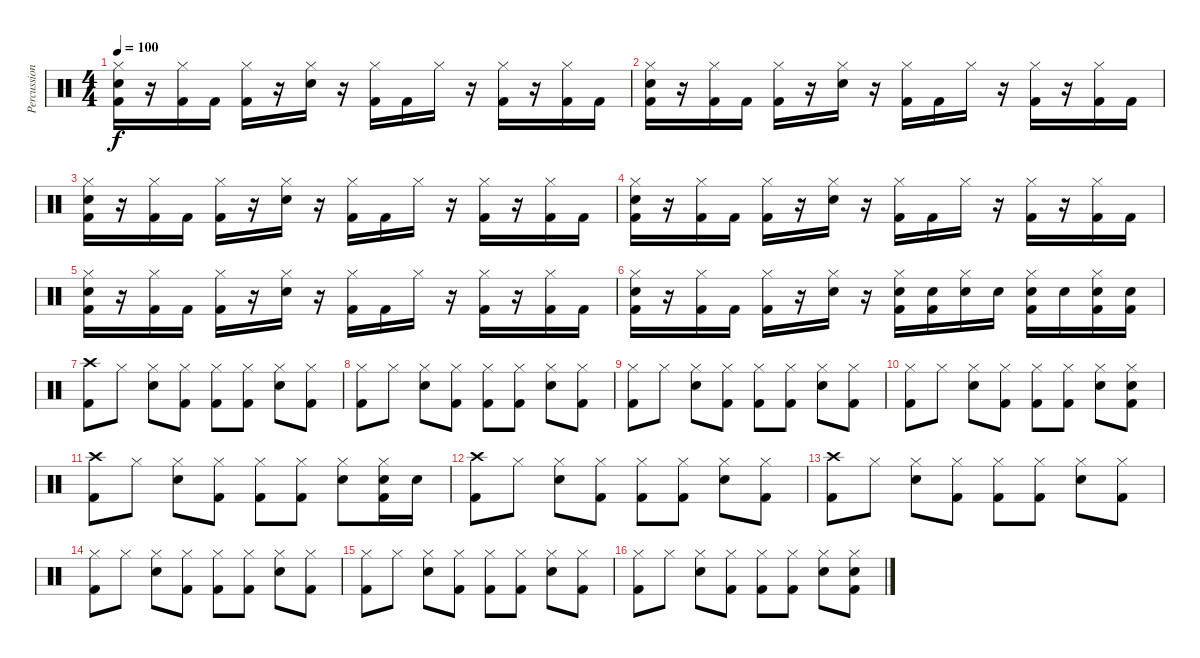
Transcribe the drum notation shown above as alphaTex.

\track ("Percussion" "Percussion") {instrument percussion}
\staff {score}
\articulation defaults
\ts (4 4)
\tempo 100
\clef neutral
\ks c
("Hi-Hat (closed)" "Snare (hit) 2" "Kick (hit) 2").16{dy f} r.16 ("Hi-Hat (closed)" "Kick (hit) 2").16 "Kick (hit) 2".16 ("Hi-Hat (closed)" "Kick (hit) 2").16 r.16 ("Hi-Hat (closed)" "Snare (hit) 2").16 r.16 ("Hi-Hat (closed)" "Kick (hit) 2").16 "Kick (hit) 2".16 "Hi-Hat (closed)".16 r.16 ("Hi-Hat (closed)" "Kick (hit) 2").16 r.16 ("Hi-Hat (closed)" "Kick (hit) 2").16 "Kick (hit) 2".16 |
("Hi-Hat (closed)" "Snare (hit) 2" "Kick (hit) 2").16 r.16 ("Hi-Hat (closed)" "Kick (hit) 2").16 "Kick (hit) 2".16 ("Hi-Hat (closed)" "Kick (hit) 2").16 r.16 ("Hi-Hat (closed)" "Snare (hit) 2").16 r.16 ("Hi-Hat (closed)" "Kick (hit) 2").16 "Kick (hit) 2".16 "Hi-Hat (closed)".16 r.16 ("Hi-Hat (closed)" "Kick (hit) 2").16 r.16 ("Hi-Hat (closed)" "Kick (hit) 2").16 "Kick (hit) 2".16 |
("Hi-Hat (closed)" "Snare (hit) 2" "Kick (hit) 2").16 r.16 ("Hi-Hat (closed)" "Kick (hit) 2").16 "Kick (hit) 2".16 ("Hi-Hat (closed)" "Kick (hit) 2").16 r.16 ("Hi-Hat (closed)" "Snare (hit) 2").16 r.16 ("Hi-Hat (closed)" "Kick (hit) 2").16 "Kick (hit) 2".16 "Hi-Hat (closed)".16 r.16 ("Hi-Hat (closed)" "Kick (hit) 2").16 r.16 ("Hi-Hat (closed)" "Kick (hit) 2").16 "Kick (hit) 2".16 |
("Hi-Hat (closed)" "Snare (hit) 2" "Kick (hit) 2").16 r.16 ("Hi-Hat (closed)" "Kick (hit) 2").16 "Kick (hit) 2".16 ("Hi-Hat (closed)" "Kick (hit) 2").16 r.16 ("Hi-Hat (closed)" "Snare (hit) 2").16 r.16 ("Hi-Hat (closed)" "Kick (hit) 2").16 "Kick (hit) 2".16 "Hi-Hat (closed)".16 r.16 ("Hi-Hat (closed)" "Kick (hit) 2").16 r.16 ("Hi-Hat (closed)" "Kick (hit) 2").16 "Kick (hit) 2".16 |
("Hi-Hat (closed)" "Snare (hit) 2" "Kick (hit) 2").16 r.16 ("Hi-Hat (closed)" "Kick (hit) 2").16 "Kick (hit) 2".16 ("Hi-Hat (closed)" "Kick (hit) 2").16 r.16 ("Hi-Hat (closed)" "Snare (hit) 2").16 r.16 ("Hi-Hat (closed)" "Kick (hit) 2").16 "Kick (hit) 2".16 "Hi-Hat (closed)".16 r.16 ("Hi-Hat (closed)" "Kick (hit) 2").16 r.16 ("Hi-Hat (closed)" "Kick (hit) 2").16 "Kick (hit) 2".16 |
("Hi-Hat (closed)" "Snare (hit) 2" "Kick (hit) 2").16 r.16 ("Hi-Hat (closed)" "Kick (hit) 2").16 "Kick (hit) 2".16 ("Hi-Hat (closed)" "Kick (hit) 2").16 r.16 ("Hi-Hat (closed)" "Snare (hit) 2").16 r.16 ("Hi-Hat (closed)" "Snare (hit) 2" "Kick (hit) 2").16 ("Snare (hit) 2" "Kick (hit) 2").16 ("Hi-Hat (closed)" "Snare (hit) 2").16 "Snare (hit) 2".16 ("Hi-Hat (closed)" "Snare (hit) 2" "Kick (hit) 2").16 "Snare (hit) 2".16 ("Hi-Hat (closed)" "Snare (hit) 2" "Kick (hit) 2").16 ("Snare (hit) 2" "Kick (hit) 2").16 |
("Crash high (hit)" "Kick (hit) 2").8 "Hi-Hat (closed)".8 ("Hi-Hat (closed)" "Snare (hit) 2").8 ("Hi-Hat (closed)" "Kick (hit) 2").8 ("Hi-Hat (closed)" "Kick (hit) 2").8 ("Hi-Hat (closed)" "Kick (hit) 2").8 ("Hi-Hat (closed)" "Snare (hit) 2").8 ("Hi-Hat (closed)" "Kick (hit) 2").8 |
("Hi-Hat (closed)" "Kick (hit) 2").8 "Hi-Hat (closed)".8 ("Hi-Hat (closed)" "Snare (hit) 2").8 ("Hi-Hat (closed)" "Kick (hit) 2").8 ("Hi-Hat (closed)" "Kick (hit) 2").8 ("Hi-Hat (closed)" "Kick (hit) 2").8 ("Hi-Hat (closed)" "Snare (hit) 2").8 ("Hi-Hat (closed)" "Kick (hit) 2").8 |
("Hi-Hat (closed)" "Kick (hit) 2").8 "Hi-Hat (closed)".8 ("Hi-Hat (closed)" "Snare (hit) 2").8 ("Hi-Hat (closed)" "Kick (hit) 2").8 ("Hi-Hat (closed)" "Kick (hit) 2").8 ("Hi-Hat (closed)" "Kick (hit) 2").8 ("Hi-Hat (closed)" "Snare (hit) 2").8 ("Hi-Hat (closed)" "Kick (hit) 2").8 |
("Hi-Hat (closed)" "Kick (hit) 2").8 "Hi-Hat (closed)".8 ("Hi-Hat (closed)" "Snare (hit) 2").8 ("Hi-Hat (closed)" "Kick (hit) 2").8 ("Hi-Hat (closed)" "Kick (hit) 2").8 ("Hi-Hat (closed)" "Kick (hit) 2").8 ("Hi-Hat (closed)" "Snare (hit) 2").8 ("Hi-Hat (closed)" "Snare (hit) 2" "Kick (hit) 2").8 |
("Crash high (hit)" "Kick (hit) 2").8 "Hi-Hat (closed)".8 ("Hi-Hat (closed)" "Snare (hit) 2").8 ("Hi-Hat (closed)" "Kick (hit) 2").8 ("Hi-Hat (closed)" "Kick (hit) 2").8 ("Hi-Hat (closed)" "Kick (hit) 2").8 ("Hi-Hat (closed)" "Snare (hit) 2").8 ("Hi-Hat (closed)" "Snare (hit) 2" "Kick (hit) 2").16 "Snare (hit) 2".16 |
("Crash high (hit)" "Kick (hit) 2").8 "Hi-Hat (closed)".8 ("Hi-Hat (closed)" "Snare (hit) 2").8 ("Hi-Hat (closed)" "Kick (hit) 2").8 ("Hi-Hat (closed)" "Kick (hit) 2").8 ("Hi-Hat (closed)" "Kick (hit) 2").8 ("Hi-Hat (closed)" "Snare (hit) 2").8 ("Hi-Hat (closed)" "Kick (hit) 2").8 |
("Crash high (hit)" "Kick (hit) 2").8 "Hi-Hat (closed)".8 ("Hi-Hat (closed)" "Snare (hit) 2").8 ("Hi-Hat (closed)" "Kick (hit) 2").8 ("Hi-Hat (closed)" "Kick (hit) 2").8 ("Hi-Hat (closed)" "Kick (hit) 2").8 ("Hi-Hat (closed)" "Snare (hit) 2").8 ("Hi-Hat (closed)" "Kick (hit) 2").8 |
("Hi-Hat (closed)" "Kick (hit) 2").8 "Hi-Hat (closed)".8 ("Hi-Hat (closed)" "Snare (hit) 2").8 ("Hi-Hat (closed)" "Kick (hit) 2").8 ("Hi-Hat (closed)" "Kick (hit) 2").8 ("Hi-Hat (closed)" "Kick (hit) 2").8 ("Hi-Hat (closed)" "Snare (hit) 2").8 ("Hi-Hat (closed)" "Kick (hit) 2").8 |
("Hi-Hat (closed)" "Kick (hit) 2").8 "Hi-Hat (closed)".8 ("Hi-Hat (closed)" "Snare (hit) 2").8 ("Hi-Hat (closed)" "Kick (hit) 2").8 ("Hi-Hat (closed)" "Kick (hit) 2").8 ("Hi-Hat (closed)" "Kick (hit) 2").8 ("Hi-Hat (closed)" "Snare (hit) 2").8 ("Hi-Hat (closed)" "Kick (hit) 2").8 |
("Hi-Hat (closed)" "Kick (hit) 2").8 "Hi-Hat (closed)".8 ("Hi-Hat (closed)" "Snare (hit) 2").8 ("Hi-Hat (closed)" "Kick (hit) 2").8 ("Hi-Hat (closed)" "Kick (hit) 2").8 ("Hi-Hat (closed)" "Kick (hit) 2").8 ("Hi-Hat (closed)" "Snare (hit) 2").8 ("Hi-Hat (closed)" "Snare (hit) 2" "Kick (hit) 2").8
